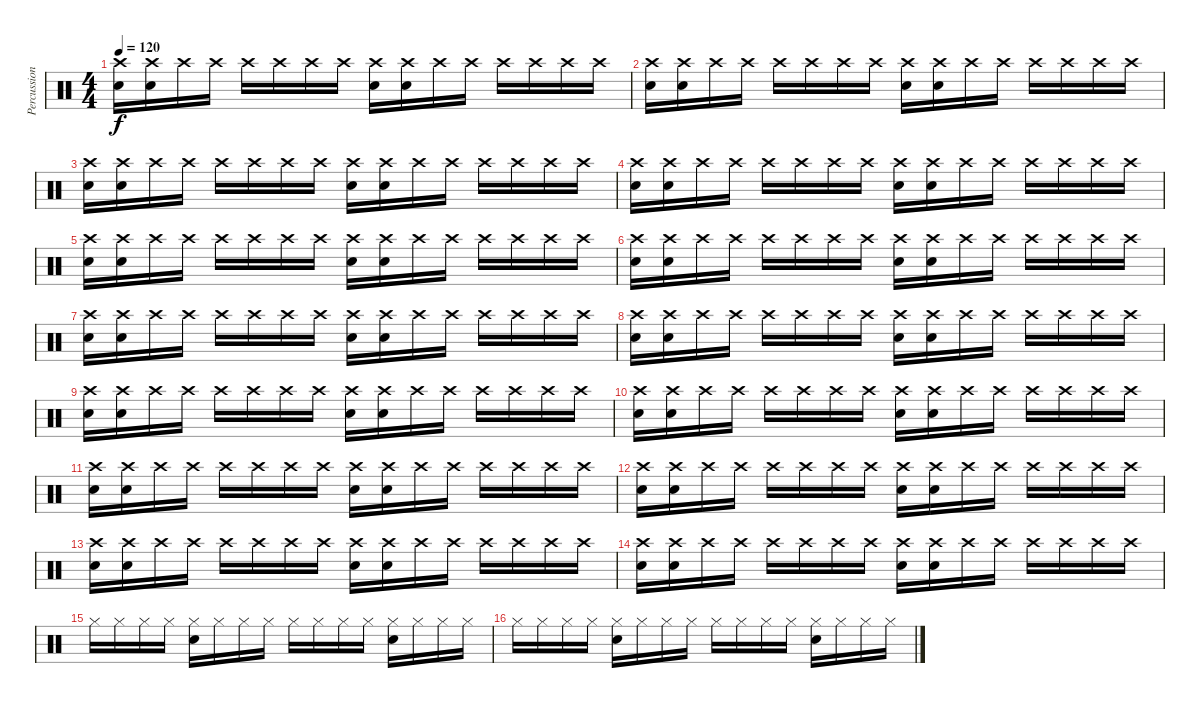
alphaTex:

\track ("Percussion" "Percussion") {instrument percussion}
\staff {score}
\articulation defaults
\ts (4 4)
\tempo 120
\clef neutral
\ks c
("Crash high (hit)" "Electric Snare (hit)").16{dy f} ("Crash high (hit)" "Electric Snare (hit)").16 "Crash high (hit)".16 "Crash high (hit)".16 "Crash high (hit)".16 "Crash high (hit)".16 "Crash high (hit)".16 "Crash high (hit)".16 ("Crash high (hit)" "Electric Snare (hit)").16 ("Crash high (hit)" "Electric Snare (hit)").16 "Crash high (hit)".16 "Crash high (hit)".16 "Crash high (hit)".16 "Crash high (hit)".16 "Crash high (hit)".16 "Crash high (hit)".16 |
("Crash high (hit)" "Electric Snare (hit)").16 ("Crash high (hit)" "Electric Snare (hit)").16 "Crash high (hit)".16 "Crash high (hit)".16 "Crash high (hit)".16 "Crash high (hit)".16 "Crash high (hit)".16 "Crash high (hit)".16 ("Crash high (hit)" "Electric Snare (hit)").16 ("Crash high (hit)" "Electric Snare (hit)").16 "Crash high (hit)".16 "Crash high (hit)".16 "Crash high (hit)".16 "Crash high (hit)".16 "Crash high (hit)".16 "Crash high (hit)".16 |
("Crash high (hit)" "Electric Snare (hit)").16 ("Crash high (hit)" "Electric Snare (hit)").16 "Crash high (hit)".16 "Crash high (hit)".16 "Crash high (hit)".16 "Crash high (hit)".16 "Crash high (hit)".16 "Crash high (hit)".16 ("Crash high (hit)" "Electric Snare (hit)").16 ("Crash high (hit)" "Electric Snare (hit)").16 "Crash high (hit)".16 "Crash high (hit)".16 "Crash high (hit)".16 "Crash high (hit)".16 "Crash high (hit)".16 "Crash high (hit)".16 |
("Crash high (hit)" "Electric Snare (hit)").16 ("Crash high (hit)" "Electric Snare (hit)").16 "Crash high (hit)".16 "Crash high (hit)".16 "Crash high (hit)".16 "Crash high (hit)".16 "Crash high (hit)".16 "Crash high (hit)".16 ("Crash high (hit)" "Electric Snare (hit)").16 ("Crash high (hit)" "Electric Snare (hit)").16 "Crash high (hit)".16 "Crash high (hit)".16 "Crash high (hit)".16 "Crash high (hit)".16 "Crash high (hit)".16 "Crash high (hit)".16 |
("Crash high (hit)" "Electric Snare (hit)").16 ("Crash high (hit)" "Electric Snare (hit)").16 "Crash high (hit)".16 "Crash high (hit)".16 "Crash high (hit)".16 "Crash high (hit)".16 "Crash high (hit)".16 "Crash high (hit)".16 ("Crash high (hit)" "Electric Snare (hit)").16 ("Crash high (hit)" "Electric Snare (hit)").16 "Crash high (hit)".16 "Crash high (hit)".16 "Crash high (hit)".16 "Crash high (hit)".16 "Crash high (hit)".16 "Crash high (hit)".16 |
("Crash high (hit)" "Electric Snare (hit)").16 ("Crash high (hit)" "Electric Snare (hit)").16 "Crash high (hit)".16 "Crash high (hit)".16 "Crash high (hit)".16 "Crash high (hit)".16 "Crash high (hit)".16 "Crash high (hit)".16 ("Crash high (hit)" "Electric Snare (hit)").16 ("Crash high (hit)" "Electric Snare (hit)").16 "Crash high (hit)".16 "Crash high (hit)".16 "Crash high (hit)".16 "Crash high (hit)".16 "Crash high (hit)".16 "Crash high (hit)".16 |
("Crash high (hit)" "Electric Snare (hit)").16 ("Crash high (hit)" "Electric Snare (hit)").16 "Crash high (hit)".16 "Crash high (hit)".16 "Crash high (hit)".16 "Crash high (hit)".16 "Crash high (hit)".16 "Crash high (hit)".16 ("Crash high (hit)" "Electric Snare (hit)").16 ("Crash high (hit)" "Electric Snare (hit)").16 "Crash high (hit)".16 "Crash high (hit)".16 "Crash high (hit)".16 "Crash high (hit)".16 "Crash high (hit)".16 "Crash high (hit)".16 |
("Crash high (hit)" "Electric Snare (hit)").16 ("Crash high (hit)" "Electric Snare (hit)").16 "Crash high (hit)".16 "Crash high (hit)".16 "Crash high (hit)".16 "Crash high (hit)".16 "Crash high (hit)".16 "Crash high (hit)".16 ("Crash high (hit)" "Electric Snare (hit)").16 ("Crash high (hit)" "Electric Snare (hit)").16 "Crash high (hit)".16 "Crash high (hit)".16 "Crash high (hit)".16 "Crash high (hit)".16 "Crash high (hit)".16 "Crash high (hit)".16 |
("Crash high (hit)" "Electric Snare (hit)").16 ("Crash high (hit)" "Electric Snare (hit)").16 "Crash high (hit)".16 "Crash high (hit)".16 "Crash high (hit)".16 "Crash high (hit)".16 "Crash high (hit)".16 "Crash high (hit)".16 ("Crash high (hit)" "Electric Snare (hit)").16 ("Crash high (hit)" "Electric Snare (hit)").16 "Crash high (hit)".16 "Crash high (hit)".16 "Crash high (hit)".16 "Crash high (hit)".16 "Crash high (hit)".16 "Crash high (hit)".16 |
("Crash high (hit)" "Electric Snare (hit)").16 ("Crash high (hit)" "Electric Snare (hit)").16 "Crash high (hit)".16 "Crash high (hit)".16 "Crash high (hit)".16 "Crash high (hit)".16 "Crash high (hit)".16 "Crash high (hit)".16 ("Crash high (hit)" "Electric Snare (hit)").16 ("Crash high (hit)" "Electric Snare (hit)").16 "Crash high (hit)".16 "Crash high (hit)".16 "Crash high (hit)".16 "Crash high (hit)".16 "Crash high (hit)".16 "Crash high (hit)".16 |
("Crash high (hit)" "Electric Snare (hit)").16 ("Crash high (hit)" "Electric Snare (hit)").16 "Crash high (hit)".16 "Crash high (hit)".16 "Crash high (hit)".16 "Crash high (hit)".16 "Crash high (hit)".16 "Crash high (hit)".16 ("Crash high (hit)" "Electric Snare (hit)").16 ("Crash high (hit)" "Electric Snare (hit)").16 "Crash high (hit)".16 "Crash high (hit)".16 "Crash high (hit)".16 "Crash high (hit)".16 "Crash high (hit)".16 "Crash high (hit)".16 |
("Crash high (hit)" "Electric Snare (hit)").16 ("Crash high (hit)" "Electric Snare (hit)").16 "Crash high (hit)".16 "Crash high (hit)".16 "Crash high (hit)".16 "Crash high (hit)".16 "Crash high (hit)".16 "Crash high (hit)".16 ("Crash high (hit)" "Electric Snare (hit)").16 ("Crash high (hit)" "Electric Snare (hit)").16 "Crash high (hit)".16 "Crash high (hit)".16 "Crash high (hit)".16 "Crash high (hit)".16 "Crash high (hit)".16 "Crash high (hit)".16 |
("Crash high (hit)" "Electric Snare (hit)").16 ("Crash high (hit)" "Electric Snare (hit)").16 "Crash high (hit)".16 "Crash high (hit)".16 "Crash high (hit)".16 "Crash high (hit)".16 "Crash high (hit)".16 "Crash high (hit)".16 ("Crash high (hit)" "Electric Snare (hit)").16 ("Crash high (hit)" "Electric Snare (hit)").16 "Crash high (hit)".16 "Crash high (hit)".16 "Crash high (hit)".16 "Crash high (hit)".16 "Crash high (hit)".16 "Crash high (hit)".16 |
("Crash high (hit)" "Electric Snare (hit)").16 ("Crash high (hit)" "Electric Snare (hit)").16 "Crash high (hit)".16 "Crash high (hit)".16 "Crash high (hit)".16 "Crash high (hit)".16 "Crash high (hit)".16 "Crash high (hit)".16 ("Crash high (hit)" "Electric Snare (hit)").16 ("Crash high (hit)" "Electric Snare (hit)").16 "Crash high (hit)".16 "Crash high (hit)".16 "Crash high (hit)".16 "Crash high (hit)".16 "Crash high (hit)".16 "Crash high (hit)".16 |
"Hi-Hat (closed)".16 "Hi-Hat (closed)".16 "Hi-Hat (closed)".16 "Hi-Hat (closed)".16 ("Hi-Hat (closed)" "Electric Snare (hit)").16 "Hi-Hat (closed)".16 "Hi-Hat (closed)".16 "Hi-Hat (closed)".16 "Hi-Hat (closed)".16 "Hi-Hat (closed)".16 "Hi-Hat (closed)".16 "Hi-Hat (closed)".16 ("Hi-Hat (closed)" "Electric Snare (hit)").16 "Hi-Hat (closed)".16 "Hi-Hat (closed)".16 "Hi-Hat (closed)".16 |
"Hi-Hat (closed)".16 "Hi-Hat (closed)".16 "Hi-Hat (closed)".16 "Hi-Hat (closed)".16 ("Hi-Hat (closed)" "Electric Snare (hit)").16 "Hi-Hat (closed)".16 "Hi-Hat (closed)".16 "Hi-Hat (closed)".16 "Hi-Hat (closed)".16 "Hi-Hat (closed)".16 "Hi-Hat (closed)".16 "Hi-Hat (closed)".16 ("Hi-Hat (closed)" "Electric Snare (hit)").16 "Hi-Hat (closed)".16 "Hi-Hat (closed)".16 "Hi-Hat (closed)".16
